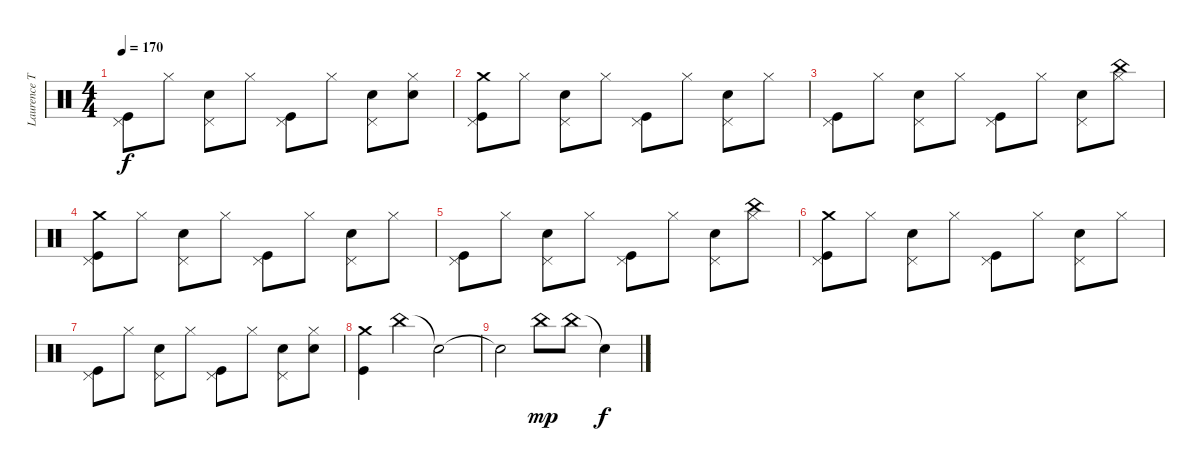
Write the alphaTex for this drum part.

\track ("Laurence Tolhurst (drums)" "Laurence T") {instrument percussion}
\staff {score}
\articulation defaults
\ts (4 4)
\tempo 170
\clef neutral
\ks c
("Pedal Hi-Hat (hit)" "Kick (hit)").8{dy f} "Hi-Hat (closed)".8 ("Pedal Hi-Hat (hit)" "Snare (hit) 2").8 "Hi-Hat (closed)".8 ("Pedal Hi-Hat (hit)" "Kick (hit)").8 "Hi-Hat (closed)".8 ("Pedal Hi-Hat (hit)" "Snare (hit) 2").8 ("Hi-Hat (closed)" "Snare (hit) 2").8 |
("Crash medium (hit)" "Pedal Hi-Hat (hit)" "Kick (hit)").8 "Hi-Hat (closed)".8 ("Pedal Hi-Hat (hit)" "Snare (hit) 2").8 "Hi-Hat (closed)".8 ("Pedal Hi-Hat (hit)" "Kick (hit)").8 "Hi-Hat (closed)".8 ("Pedal Hi-Hat (hit)" "Snare (hit) 2").8 "Hi-Hat (closed)".8 |
("Pedal Hi-Hat (hit)" "Kick (hit)").8 "Hi-Hat (closed)".8 ("Pedal Hi-Hat (hit)" "Snare (hit) 2").8 "Hi-Hat (closed)".8 ("Pedal Hi-Hat (hit)" "Kick (hit)").8 "Hi-Hat (closed)".8 ("Pedal Hi-Hat (hit)" "Snare (hit) 2").8 ("China (hit)" "Hi-Hat (closed)").8 |
("Crash medium (hit)" "Pedal Hi-Hat (hit)" "Kick (hit)").8 "Hi-Hat (closed)".8 ("Pedal Hi-Hat (hit)" "Snare (hit) 2").8 "Hi-Hat (closed)".8 ("Pedal Hi-Hat (hit)" "Kick (hit)").8 "Hi-Hat (closed)".8 ("Pedal Hi-Hat (hit)" "Snare (hit) 2").8 "Hi-Hat (closed)".8 |
("Pedal Hi-Hat (hit)" "Kick (hit)").8 "Hi-Hat (closed)".8 ("Pedal Hi-Hat (hit)" "Snare (hit) 2").8 "Hi-Hat (closed)".8 ("Pedal Hi-Hat (hit)" "Kick (hit)").8 "Hi-Hat (closed)".8 ("Pedal Hi-Hat (hit)" "Snare (hit) 2").8 ("China (hit)" "Hi-Hat (closed)").8 |
("Crash medium (hit)" "Pedal Hi-Hat (hit)" "Kick (hit)").8 "Hi-Hat (closed)".8 ("Pedal Hi-Hat (hit)" "Snare (hit) 2").8 "Hi-Hat (closed)".8 ("Pedal Hi-Hat (hit)" "Kick (hit)").8 "Hi-Hat (closed)".8 ("Pedal Hi-Hat (hit)" "Snare (hit) 2").8 "Hi-Hat (closed)".8 |
("Pedal Hi-Hat (hit)" "Kick (hit)").8 "Hi-Hat (closed)".8 ("Pedal Hi-Hat (hit)" "Snare (hit) 2").8 "Hi-Hat (closed)".8 ("Pedal Hi-Hat (hit)" "Kick (hit)").8 "Hi-Hat (closed)".8 ("Pedal Hi-Hat (hit)" "Snare (hit) 2").8 ("Hi-Hat (closed)" "Snare (hit) 2").8 |
("Crash medium (hit)" "Kick (hit)").4 "China (hit)".4 "Snare (hit)"{t}.2 |
"Snare (hit)"{t}.2 "China (hit)".8{dy mp} "China (hit)".8 "Snare (hit)"{t}.4{dy f}
